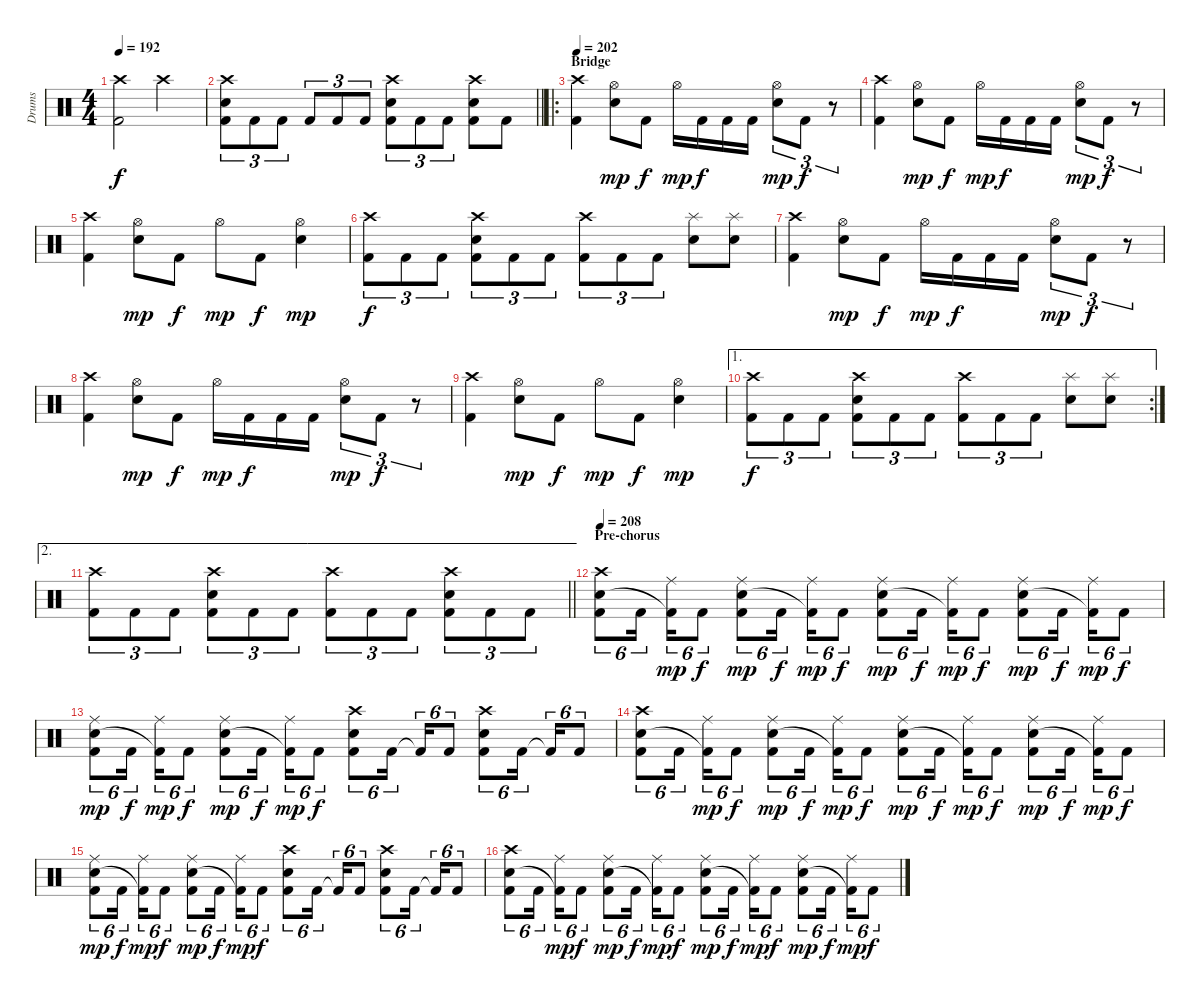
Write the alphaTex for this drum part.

\track ("Drums" "Drums") {instrument percussion}
\staff {score}
\articulation defaults
\ts (4 4)
\tempo 192
\clef neutral
\ks c
("Crash high (hit)" "Kick (hit) 2").2{dy f} "Crash high (hit)".2 |
\barLineRight lightlight
("Crash high (hit)" "Electric Snare (hit)" "Kick (hit) 2").8{tu (3 2)} "Kick (hit) 2".8{tu (3 2)} "Kick (hit) 2".8{tu (3 2)} "Kick (hit) 2".8{tu (3 2)} "Kick (hit) 2".8{tu (3 2)} "Kick (hit) 2".8{tu (3 2)} ("Crash high (hit)" "Electric Snare (hit)" "Kick (hit) 2").8{tu (3 2)} "Kick (hit) 2".8{tu (3 2)} "Kick (hit) 2".8{tu (3 2)} ("Crash high (hit)" "Electric Snare (hit)" "Kick (hit) 2").8 "Kick (hit) 2".8 |
\ro
\section ("" "Bridge")
\tempo 202
("Crash high (hit)" "Kick (hit) 2").4 ("Hi-Hat (open)" "Electric Snare (hit)").8{dy mp} "Kick (hit) 2".8{dy f} "Hi-Hat (open)".16{dy mp} "Kick (hit) 2".16{dy f} "Kick (hit) 2".16 "Kick (hit) 2".16 ("Hi-Hat (open)" "Electric Snare (hit)").8{tu (3 2) dy mp} "Kick (hit) 2".8{tu (3 2) dy f} r.8{tu (3 2)} |
("Crash high (hit)" "Kick (hit) 2").4 ("Hi-Hat (open)" "Electric Snare (hit)").8{dy mp} "Kick (hit) 2".8{dy f} "Hi-Hat (open)".16{dy mp} "Kick (hit) 2".16{dy f} "Kick (hit) 2".16 "Kick (hit) 2".16 ("Hi-Hat (open)" "Electric Snare (hit)").8{tu (3 2) dy mp} "Kick (hit) 2".8{tu (3 2) dy f} r.8{tu (3 2)} |
("Crash high (hit)" "Kick (hit) 2").4 ("Hi-Hat (open)" "Electric Snare (hit)").8{dy mp} "Kick (hit) 2".8{dy f} "Hi-Hat (open)".8{dy mp} "Kick (hit) 2".8{dy f} ("Hi-Hat (open)" "Electric Snare (hit)").4{dy mp} |
("Crash high (hit)" "Kick (hit) 2").8{tu (3 2) dy f} "Kick (hit) 2".8{tu (3 2)} "Kick (hit) 2".8{tu (3 2)} ("Crash high (hit)" "Electric Snare (hit)" "Kick (hit) 2").8{tu (3 2)} "Kick (hit) 2".8{tu (3 2)} "Kick (hit) 2".8{tu (3 2)} ("Crash high (hit)" "Kick (hit) 2").8{tu (3 2)} "Kick (hit) 2".8{tu (3 2)} "Kick (hit) 2".8{tu (3 2)} ("Splash (hit)" "Electric Snare (hit)").8 ("Splash (hit)" "Electric Snare (hit)").8 |
("Crash high (hit)" "Kick (hit) 2").4 ("Hi-Hat (open)" "Electric Snare (hit)").8{dy mp} "Kick (hit) 2".8{dy f} "Hi-Hat (open)".16{dy mp} "Kick (hit) 2".16{dy f} "Kick (hit) 2".16 "Kick (hit) 2".16 ("Hi-Hat (open)" "Electric Snare (hit)").8{tu (3 2) dy mp} "Kick (hit) 2".8{tu (3 2) dy f} r.8{tu (3 2)} |
("Crash high (hit)" "Kick (hit) 2").4 ("Hi-Hat (open)" "Electric Snare (hit)").8{dy mp} "Kick (hit) 2".8{dy f} "Hi-Hat (open)".16{dy mp} "Kick (hit) 2".16{dy f} "Kick (hit) 2".16 "Kick (hit) 2".16 ("Hi-Hat (open)" "Electric Snare (hit)").8{tu (3 2) dy mp} "Kick (hit) 2".8{tu (3 2) dy f} r.8{tu (3 2)} |
("Crash high (hit)" "Kick (hit) 2").4 ("Hi-Hat (open)" "Electric Snare (hit)").8{dy mp} "Kick (hit) 2".8{dy f} "Hi-Hat (open)".8{dy mp} "Kick (hit) 2".8{dy f} ("Hi-Hat (open)" "Electric Snare (hit)").4{dy mp} |
\ae 1
\rc 2
("Crash high (hit)" "Kick (hit) 2").8{tu (3 2) dy f} "Kick (hit) 2".8{tu (3 2)} "Kick (hit) 2".8{tu (3 2)} ("Crash high (hit)" "Electric Snare (hit)" "Kick (hit) 2").8{tu (3 2)} "Kick (hit) 2".8{tu (3 2)} "Kick (hit) 2".8{tu (3 2)} ("Crash high (hit)" "Kick (hit) 2").8{tu (3 2)} "Kick (hit) 2".8{tu (3 2)} "Kick (hit) 2".8{tu (3 2)} ("Splash (hit)" "Electric Snare (hit)").8 ("Splash (hit)" "Electric Snare (hit)").8 |
\ae 2
\barLineRight lightlight
("Crash high (hit)" "Kick (hit) 2").8{tu (3 2)} "Kick (hit) 2".8{tu (3 2)} "Kick (hit) 2".8{tu (3 2)} ("Crash high (hit)" "Electric Snare (hit)" "Kick (hit) 2").8{tu (3 2)} "Kick (hit) 2".8{tu (3 2)} "Kick (hit) 2".8{tu (3 2)} ("Crash high (hit)" "Kick (hit) 2").8{tu (3 2)} "Kick (hit) 2".8{tu (3 2)} "Kick (hit) 2".8{tu (3 2)} ("Crash high (hit)" "Electric Snare (hit)" "Kick (hit) 2").8{tu (3 2)} "Kick (hit) 2".8{tu (3 2)} "Kick (hit) 2".8{tu (3 2)} |
\section ("" "Pre-chorus")
\tempo 208
("Crash high (hit)" "Electric Snare (hit)" "Kick (hit) 2").8{tu (6 4)} "Kick (hit) 2".16{tu (6 4) beam splitsecondary} ("Ride (middle)" "Kick (hit) 2"{t}).16{tu (6 4) dy mp} "Kick (hit) 2".8{tu (6 4) dy f} ("Ride (middle)" "Electric Snare (hit)" "Kick (hit) 2").8{tu (6 4) dy mp} "Kick (hit) 2".16{tu (6 4) dy f beam splitsecondary} ("Ride (middle)" "Kick (hit) 2"{t}).16{tu (6 4) dy mp} "Kick (hit) 2".8{tu (6 4) dy f} ("Ride (middle)" "Electric Snare (hit)" "Kick (hit) 2").8{tu (6 4) dy mp} "Kick (hit) 2".16{tu (6 4) dy f beam splitsecondary} ("Ride (middle)" "Kick (hit) 2"{t}).16{tu (6 4) dy mp} "Kick (hit) 2".8{tu (6 4) dy f} ("Ride (middle)" "Electric Snare (hit)" "Kick (hit) 2").8{tu (6 4) dy mp} "Kick (hit) 2".16{tu (6 4) dy f beam splitsecondary} ("Ride (middle)" "Kick (hit) 2"{t}).16{tu (6 4) dy mp} "Kick (hit) 2".8{tu (6 4) dy f} |
("Ride (middle)" "Electric Snare (hit)" "Kick (hit) 2").8{tu (6 4) dy mp} "Kick (hit) 2".16{tu (6 4) dy f beam splitsecondary} ("Ride (middle)" "Kick (hit) 2"{t}).16{tu (6 4) dy mp} "Kick (hit) 2".8{tu (6 4) dy f} ("Ride (middle)" "Electric Snare (hit)" "Kick (hit) 2").8{tu (6 4) dy mp} "Kick (hit) 2".16{tu (6 4) dy f beam splitsecondary} ("Ride (middle)" "Kick (hit) 2"{t}).16{tu (6 4) dy mp} "Kick (hit) 2".8{tu (6 4) dy f} ("Crash high (hit)" "Electric Snare (hit)" "Kick (hit) 2").8{tu (6 4)} "Kick (hit) 2".16{tu (6 4) beam splitsecondary} "Kick (hit) 2"{t}.16{tu (6 4)} "Kick (hit) 2".8{tu (6 4)} ("Crash high (hit)" "Electric Snare (hit)" "Kick (hit) 2").8{tu (6 4)} "Kick (hit) 2".16{tu (6 4) beam splitsecondary} "Kick (hit) 2"{t}.16{tu (6 4)} "Kick (hit) 2".8{tu (6 4)} |
("Crash high (hit)" "Electric Snare (hit)" "Kick (hit) 2").8{tu (6 4)} "Kick (hit) 2".16{tu (6 4) beam splitsecondary} ("Ride (middle)" "Kick (hit) 2"{t}).16{tu (6 4) dy mp} "Kick (hit) 2".8{tu (6 4) dy f} ("Ride (middle)" "Electric Snare (hit)" "Kick (hit) 2").8{tu (6 4) dy mp} "Kick (hit) 2".16{tu (6 4) dy f beam splitsecondary} ("Ride (middle)" "Kick (hit) 2"{t}).16{tu (6 4) dy mp} "Kick (hit) 2".8{tu (6 4) dy f} ("Ride (middle)" "Electric Snare (hit)" "Kick (hit) 2").8{tu (6 4) dy mp} "Kick (hit) 2".16{tu (6 4) dy f beam splitsecondary} ("Ride (middle)" "Kick (hit) 2"{t}).16{tu (6 4) dy mp} "Kick (hit) 2".8{tu (6 4) dy f} ("Ride (middle)" "Electric Snare (hit)" "Kick (hit) 2").8{tu (6 4) dy mp} "Kick (hit) 2".16{tu (6 4) dy f beam splitsecondary} ("Ride (middle)" "Kick (hit) 2"{t}).16{tu (6 4) dy mp} "Kick (hit) 2".8{tu (6 4) dy f} |
("Ride (middle)" "Electric Snare (hit)" "Kick (hit) 2").8{tu (6 4) dy mp} "Kick (hit) 2".16{tu (6 4) dy f beam splitsecondary} ("Ride (middle)" "Kick (hit) 2"{t}).16{tu (6 4) dy mp} "Kick (hit) 2".8{tu (6 4) dy f} ("Ride (middle)" "Electric Snare (hit)" "Kick (hit) 2").8{tu (6 4) dy mp} "Kick (hit) 2".16{tu (6 4) dy f beam splitsecondary} ("Ride (middle)" "Kick (hit) 2"{t}).16{tu (6 4) dy mp} "Kick (hit) 2".8{tu (6 4) dy f} ("Crash high (hit)" "Electric Snare (hit)" "Kick (hit) 2").8{tu (6 4)} "Kick (hit) 2".16{tu (6 4) beam splitsecondary} "Kick (hit) 2"{t}.16{tu (6 4)} "Kick (hit) 2".8{tu (6 4)} ("Crash high (hit)" "Electric Snare (hit)" "Kick (hit) 2").8{tu (6 4)} "Kick (hit) 2".16{tu (6 4) beam splitsecondary} "Kick (hit) 2"{t}.16{tu (6 4)} "Kick (hit) 2".8{tu (6 4)} |
("Crash high (hit)" "Electric Snare (hit)" "Kick (hit) 2").8{tu (6 4)} "Kick (hit) 2".16{tu (6 4) beam splitsecondary} ("Ride (middle)" "Kick (hit) 2"{t}).16{tu (6 4) dy mp} "Kick (hit) 2".8{tu (6 4) dy f} ("Ride (middle)" "Electric Snare (hit)" "Kick (hit) 2").8{tu (6 4) dy mp} "Kick (hit) 2".16{tu (6 4) dy f beam splitsecondary} ("Ride (middle)" "Kick (hit) 2"{t}).16{tu (6 4) dy mp} "Kick (hit) 2".8{tu (6 4) dy f} ("Ride (middle)" "Electric Snare (hit)" "Kick (hit) 2").8{tu (6 4) dy mp} "Kick (hit) 2".16{tu (6 4) dy f beam splitsecondary} ("Ride (middle)" "Kick (hit) 2"{t}).16{tu (6 4) dy mp} "Kick (hit) 2".8{tu (6 4) dy f} ("Ride (middle)" "Electric Snare (hit)" "Kick (hit) 2").8{tu (6 4) dy mp} "Kick (hit) 2".16{tu (6 4) dy f beam splitsecondary} ("Ride (middle)" "Kick (hit) 2"{t}).16{tu (6 4) dy mp} "Kick (hit) 2".8{tu (6 4) dy f}
